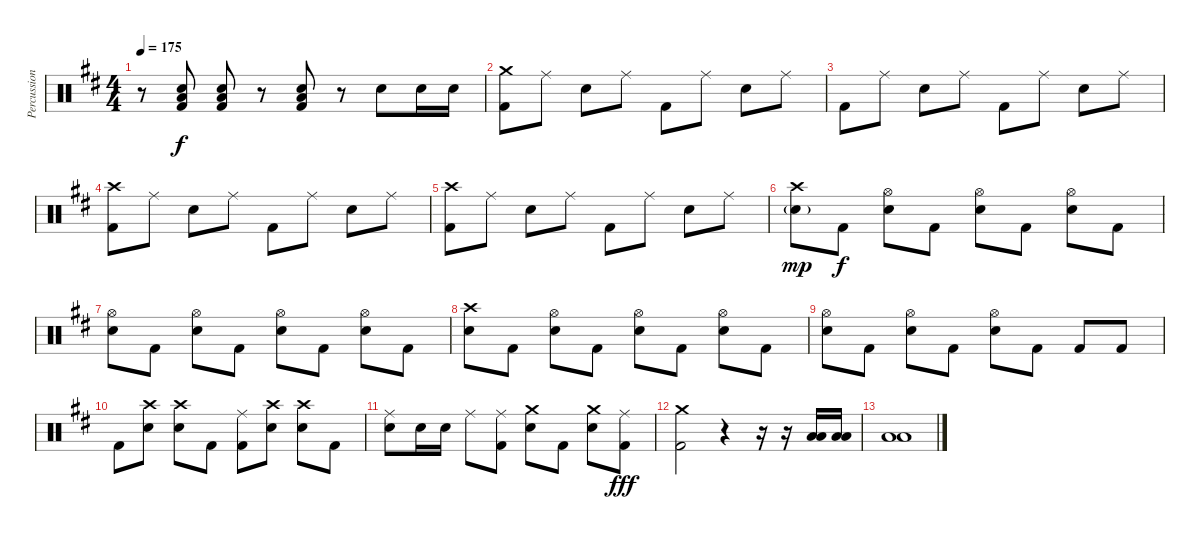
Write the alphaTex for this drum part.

\track ("Percussion" "Percussion") {instrument percussion}
\staff {score}
\articulation defaults
\ts (4 4)
\tempo 175
\clef neutral
\ks d
r.8{dy f} ("Low Floor Tom (hit)" "Electric Snare (hit)" "Kick (hit) 2").8 ("Low Floor Tom (hit)" "Electric Snare (hit)" "Kick (hit) 2").8 r.8 ("Low Floor Tom (hit)" "Electric Snare (hit)" "Kick (hit) 2").8 r.8 "Electric Snare (hit)".8 "Electric Snare (hit)".16 "Electric Snare (hit)".16 |
("Crash medium (hit)" "Kick (hit) 2").8 "Ride (middle)".8 "Electric Snare (hit)".8 "Ride (middle)".8 "Kick (hit) 2".8 "Ride (middle)".8 "Electric Snare (hit)".8 "Ride (middle)".8 |
"Kick (hit) 2".8 "Ride (middle)".8 "Electric Snare (hit)".8 "Ride (middle)".8 "Kick (hit) 2".8 "Ride (middle)".8 "Electric Snare (hit)".8 "Ride (middle)".8 |
("Crash high (hit)" "Kick (hit) 2").8 "Ride (middle)".8 "Electric Snare (hit)".8 "Ride (middle)".8 "Kick (hit) 2".8 "Ride (middle)".8 "Electric Snare (hit)".8 "Ride (middle)".8 |
("Crash high (hit)" "Kick (hit) 2").8 "Ride (middle)".8 "Electric Snare (hit)".8 "Ride (middle)".8 "Kick (hit) 2".8 "Ride (middle)".8 "Electric Snare (hit)".8 "Ride (middle)".8 |
("Crash high (hit)" "Electric Snare (hit)"{g}).8{dy mp} "Kick (hit) 2".8{dy f} ("Hi-Hat (open)" "Electric Snare (hit)").8 "Kick (hit) 2".8 ("Hi-Hat (open)" "Electric Snare (hit)").8 "Kick (hit) 2".8 ("Hi-Hat (open)" "Electric Snare (hit)").8 "Kick (hit) 2".8 |
("Hi-Hat (open)" "Electric Snare (hit)").8 "Kick (hit) 2".8 ("Hi-Hat (open)" "Electric Snare (hit)").8 "Kick (hit) 2".8 ("Hi-Hat (open)" "Electric Snare (hit)").8 "Kick (hit) 2".8 ("Hi-Hat (open)" "Electric Snare (hit)").8 "Kick (hit) 2".8 |
("Crash high (hit)" "Electric Snare (hit)").8 "Kick (hit) 2".8 ("Hi-Hat (open)" "Electric Snare (hit)").8 "Kick (hit) 2".8 ("Hi-Hat (open)" "Electric Snare (hit)").8 "Kick (hit) 2".8 ("Hi-Hat (open)" "Electric Snare (hit)").8 "Kick (hit) 2".8 |
("Hi-Hat (open)" "Electric Snare (hit)").8 "Kick (hit) 2".8 ("Hi-Hat (open)" "Electric Snare (hit)").8 "Kick (hit) 2".8 ("Hi-Hat (open)" "Electric Snare (hit)").8 "Kick (hit) 2".8 "Kick (hit) 2".8 "Kick (hit) 2".8 |
"Kick (hit) 2".8 ("Crash high (hit)" "Electric Snare (hit)").8 ("Crash high (hit)" "Electric Snare (hit)").8 "Kick (hit) 2".8 ("Ride (middle)" "Kick (hit) 2").8 ("Crash high (hit)" "Electric Snare (hit)").8 ("Crash high (hit)" "Electric Snare (hit)").8 "Kick (hit) 2".8 |
("Ride (middle)" "Electric Snare (hit)").8 "Electric Snare (hit)".16 "Electric Snare (hit)".16 "Ride (middle)".8 ("Ride (middle)" "Kick (hit) 2").8 ("Crash medium (hit)" "Electric Snare (hit)").8 "Kick (hit) 2".8 ("Crash medium (hit)" "Electric Snare (hit)").8 ("Ride (middle)" "Kick (hit) 2").8{dy fff} |
("Crash medium (hit)" "Kick (hit) 2").2 r.4 r.16 r.16 ("Low Floor Tom (hit)" "Low Floor Tom (hit)").16 ("Low Floor Tom (hit)" "Low Floor Tom (hit)").16 |
("Low Floor Tom (hit)" "Low Floor Tom (hit)").1
